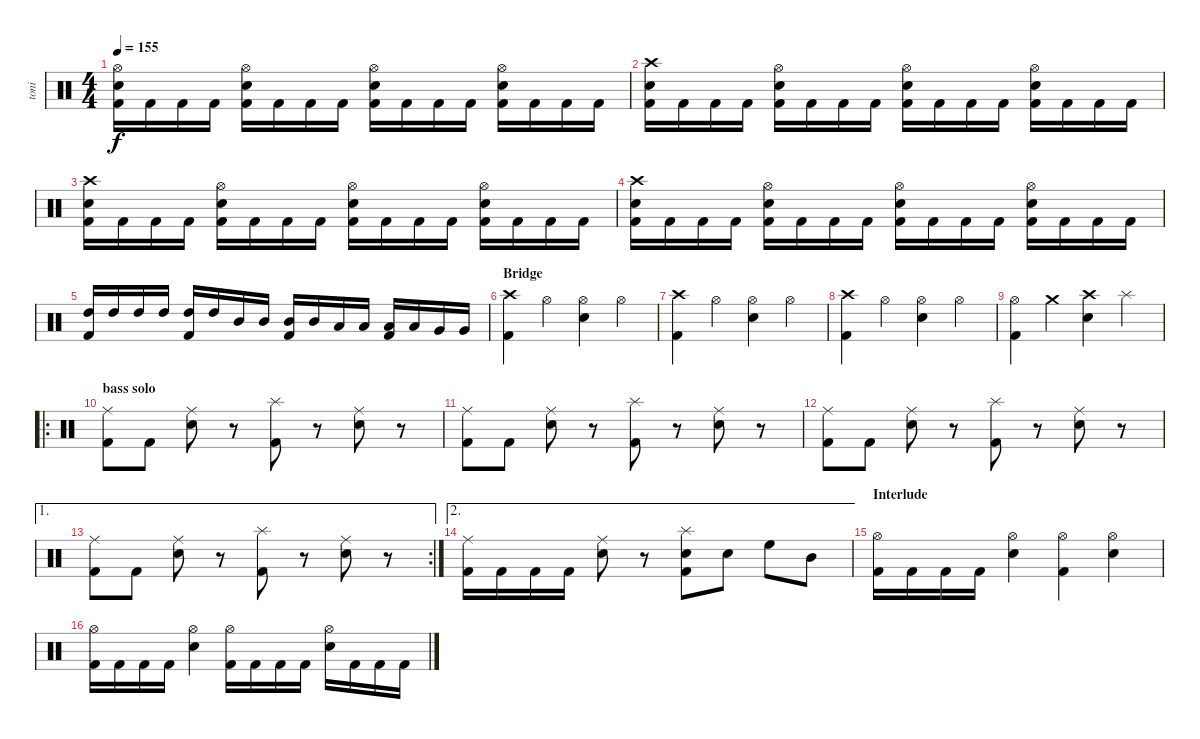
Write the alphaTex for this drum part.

\track ("toni" "toni") {instrument percussion}
\staff {score}
\articulation defaults
\ts (4 4)
\tempo 155
\clef neutral
\ks c
("Hi-Hat (open)" "Snare (hit) 2" "Kick (hit) 2").16{dy f} "Kick (hit) 2".16 "Kick (hit) 2".16 "Kick (hit) 2".16 ("Hi-Hat (open)" "Snare (hit) 2" "Kick (hit) 2").16 "Kick (hit) 2".16 "Kick (hit) 2".16 "Kick (hit) 2".16 ("Hi-Hat (open)" "Snare (hit) 2" "Kick (hit) 2").16 "Kick (hit) 2".16 "Kick (hit) 2".16 "Kick (hit) 2".16 ("Hi-Hat (open)" "Snare (hit) 2" "Kick (hit) 2").16 "Kick (hit) 2".16 "Kick (hit) 2".16 "Kick (hit) 2".16 |
("Crash high (hit)" "Snare (hit) 2" "Kick (hit) 2").16 "Kick (hit) 2".16 "Kick (hit) 2".16 "Kick (hit) 2".16 ("Hi-Hat (open)" "Snare (hit) 2" "Kick (hit) 2").16 "Kick (hit) 2".16 "Kick (hit) 2".16 "Kick (hit) 2".16 ("Hi-Hat (open)" "Snare (hit) 2" "Kick (hit) 2").16 "Kick (hit) 2".16 "Kick (hit) 2".16 "Kick (hit) 2".16 ("Hi-Hat (open)" "Snare (hit) 2" "Kick (hit) 2").16 "Kick (hit) 2".16 "Kick (hit) 2".16 "Kick (hit) 2".16 |
("Crash high (hit)" "Snare (hit) 2" "Kick (hit) 2").16 "Kick (hit) 2".16 "Kick (hit) 2".16 "Kick (hit) 2".16 ("Hi-Hat (open)" "Snare (hit) 2" "Kick (hit) 2").16 "Kick (hit) 2".16 "Kick (hit) 2".16 "Kick (hit) 2".16 ("Hi-Hat (open)" "Snare (hit) 2" "Kick (hit) 2").16 "Kick (hit) 2".16 "Kick (hit) 2".16 "Kick (hit) 2".16 ("Hi-Hat (open)" "Snare (hit) 2" "Kick (hit) 2").16 "Kick (hit) 2".16 "Kick (hit) 2".16 "Kick (hit) 2".16 |
("Crash high (hit)" "Snare (hit) 2" "Kick (hit) 2").16 "Kick (hit) 2".16 "Kick (hit) 2".16 "Kick (hit) 2".16 ("Hi-Hat (open)" "Snare (hit) 2" "Kick (hit) 2").16 "Kick (hit) 2".16 "Kick (hit) 2".16 "Kick (hit) 2".16 ("Hi-Hat (open)" "Snare (hit) 2" "Kick (hit) 2").16 "Kick (hit) 2".16 "Kick (hit) 2".16 "Kick (hit) 2".16 ("Hi-Hat (open)" "Snare (hit) 2" "Kick (hit) 2").16 "Kick (hit) 2".16 "Kick (hit) 2".16 "Kick (hit) 2".16 |
("High Tom (hit)" "Kick (hit) 2").16 "High Tom (hit)".16 "High Tom (hit)".16 "High Tom (hit)".16 ("High Tom (hit)" "Kick (hit) 2").16 "High Tom (hit)".16 "Mid Tom (hit)".16 "Mid Tom (hit)".16 ("Mid Tom (hit)" "Kick (hit) 2").16 "Mid Tom (hit)".16 "Low Tom (hit)".16 "Low Tom (hit)".16 ("Low Tom (hit)" "Kick (hit) 2").16 "Low Tom (hit)".16 "Very Low Tom (hit)".16 "Very Low Tom (hit)".16 |
\section ("" "Bridge")
("Crash high (hit)" "Kick (hit) 2").4 "Hi-Hat (open)".4 ("Hi-Hat (open)" "Snare (hit) 2").4 "Hi-Hat (open)".4 |
("Crash high (hit)" "Kick (hit) 2").4 "Hi-Hat (open)".4 ("Hi-Hat (open)" "Snare (hit) 2").4 "Hi-Hat (open)".4 |
("Crash high (hit)" "Kick (hit) 2").4 "Hi-Hat (open)".4 ("Hi-Hat (open)" "Snare (hit) 2").4 "Hi-Hat (open)".4 |
("Hi-Hat (open)" "Kick (hit) 2").4 "Crash medium (hit)".4 ("Crash high (hit)" "Snare (hit) 2").4 "Splash (hit)".4 |
\ro
\section ("" "bass solo")
("Ride (middle)" "Kick (hit) 2").8 "Kick (hit) 2".8 ("Ride (middle)" "Snare (hit) 2").8 r.8 ("Splash (hit)" "Kick (hit) 2").8 r.8 ("Ride (middle)" "Snare (hit) 2").8 r.8 |
("Ride (middle)" "Kick (hit) 2").8 "Kick (hit) 2".8 ("Ride (middle)" "Snare (hit) 2").8 r.8 ("Splash (hit)" "Kick (hit) 2").8 r.8 ("Ride (middle)" "Snare (hit) 2").8 r.8 |
("Ride (middle)" "Kick (hit) 2").8 "Kick (hit) 2".8 ("Ride (middle)" "Snare (hit) 2").8 r.8 ("Splash (hit)" "Kick (hit) 2").8 r.8 ("Ride (middle)" "Snare (hit) 2").8 r.8 |
\ae 1
\rc 2
("Ride (middle)" "Kick (hit) 2").8 "Kick (hit) 2".8 ("Ride (middle)" "Snare (hit) 2").8 r.8 ("Splash (hit)" "Kick (hit) 2").8 r.8 ("Ride (middle)" "Snare (hit) 2").8 r.8 |
\ae 2
("Ride (middle)" "Kick (hit) 2").16 "Kick (hit) 2".16 "Kick (hit) 2".16 "Kick (hit) 2".16 ("Ride (middle)" "Snare (hit) 2").8 r.8 ("Splash (hit)" "Snare (hit) 2" "Kick (hit) 2").8 "Snare (hit) 2".8 "High Floor Tom (hit)".8 "Mid Tom (hit)".8 |
\section ("" "Interlude")
("Hi-Hat (open)" "Kick (hit) 2").16 "Kick (hit) 2".16 "Kick (hit) 2".16 "Kick (hit) 2".16 ("Hi-Hat (open)" "Snare (hit) 2").4 ("Hi-Hat (open)" "Kick (hit) 2").4 ("Hi-Hat (open)" "Snare (hit) 2").4 |
("Hi-Hat (open)" "Kick (hit) 2").16 "Kick (hit) 2".16 "Kick (hit) 2".16 "Kick (hit) 2".16 ("Hi-Hat (open)" "Snare (hit) 2").4 ("Hi-Hat (open)" "Kick (hit) 2").16 "Kick (hit) 2".16 "Kick (hit) 2".16 "Kick (hit) 2".16 ("Hi-Hat (open)" "Snare (hit) 2").16 "Kick (hit) 2".16 "Kick (hit) 2".16 "Kick (hit) 2".16
